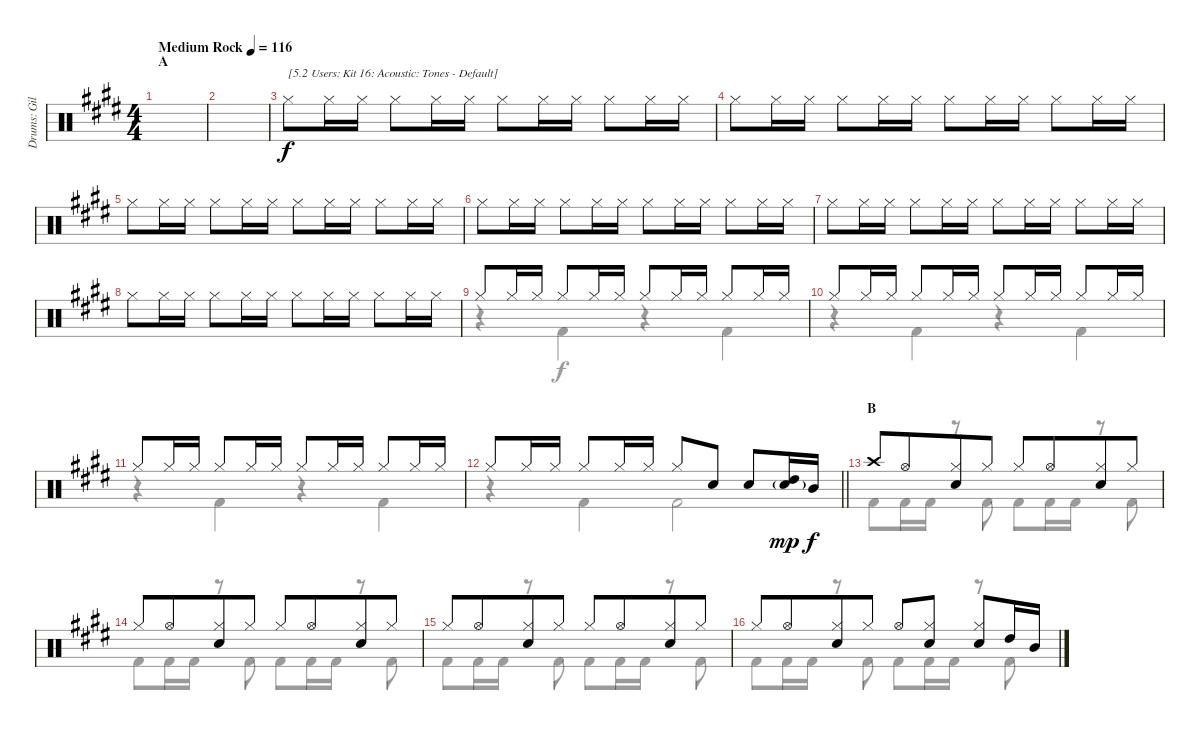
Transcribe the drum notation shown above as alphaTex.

\track ("Drums: Gil" "Drums: Gil") {instrument percussion}
\staff {score}
\articulation defaults
\voice
\ts (4 4)
\section ("" "A")
\tempo (116 "Medium Rock")
\clef neutral
\ks e
|
|
"Hi-Hat (closed)".8{txt "[5.2 Users: Kit 16: Acoustic: Tones - Default]"} "Hi-Hat (closed)".16 "Hi-Hat (closed)".16 "Hi-Hat (closed)".8 "Hi-Hat (closed)".16 "Hi-Hat (closed)".16 "Hi-Hat (closed)".8 "Hi-Hat (closed)".16 "Hi-Hat (closed)".16 "Hi-Hat (closed)".8 "Hi-Hat (closed)".16 "Hi-Hat (closed)".16 |
"Hi-Hat (closed)".8 "Hi-Hat (closed)".16 "Hi-Hat (closed)".16 "Hi-Hat (closed)".8 "Hi-Hat (closed)".16 "Hi-Hat (closed)".16 "Hi-Hat (closed)".8 "Hi-Hat (closed)".16 "Hi-Hat (closed)".16 "Hi-Hat (closed)".8 "Hi-Hat (closed)".16 "Hi-Hat (closed)".16 |
"Hi-Hat (closed)".8 "Hi-Hat (closed)".16 "Hi-Hat (closed)".16 "Hi-Hat (closed)".8 "Hi-Hat (closed)".16 "Hi-Hat (closed)".16 "Hi-Hat (closed)".8 "Hi-Hat (closed)".16 "Hi-Hat (closed)".16 "Hi-Hat (closed)".8 "Hi-Hat (closed)".16 "Hi-Hat (closed)".16 |
"Hi-Hat (closed)".8 "Hi-Hat (closed)".16 "Hi-Hat (closed)".16 "Hi-Hat (closed)".8 "Hi-Hat (closed)".16 "Hi-Hat (closed)".16 "Hi-Hat (closed)".8 "Hi-Hat (closed)".16 "Hi-Hat (closed)".16 "Hi-Hat (closed)".8 "Hi-Hat (closed)".16 "Hi-Hat (closed)".16 |
"Hi-Hat (closed)".8 "Hi-Hat (closed)".16 "Hi-Hat (closed)".16 "Hi-Hat (closed)".8 "Hi-Hat (closed)".16 "Hi-Hat (closed)".16 "Hi-Hat (closed)".8 "Hi-Hat (closed)".16 "Hi-Hat (closed)".16 "Hi-Hat (closed)".8 "Hi-Hat (closed)".16 "Hi-Hat (closed)".16 |
"Hi-Hat (closed)".8 "Hi-Hat (closed)".16 "Hi-Hat (closed)".16 "Hi-Hat (closed)".8 "Hi-Hat (closed)".16 "Hi-Hat (closed)".16 "Hi-Hat (closed)".8 "Hi-Hat (closed)".16 "Hi-Hat (closed)".16 "Hi-Hat (closed)".8 "Hi-Hat (closed)".16 "Hi-Hat (closed)".16 |
"Hi-Hat (closed)".8 "Hi-Hat (closed)".16 "Hi-Hat (closed)".16 "Hi-Hat (closed)".8 "Hi-Hat (closed)".16 "Hi-Hat (closed)".16 "Hi-Hat (closed)".8 "Hi-Hat (closed)".16 "Hi-Hat (closed)".16 "Hi-Hat (closed)".8 "Hi-Hat (closed)".16 "Hi-Hat (closed)".16 |
"Hi-Hat (closed)".8 "Hi-Hat (closed)".16 "Hi-Hat (closed)".16 "Hi-Hat (closed)".8 "Hi-Hat (closed)".16 "Hi-Hat (closed)".16 "Hi-Hat (closed)".8 "Hi-Hat (closed)".16 "Hi-Hat (closed)".16 "Hi-Hat (closed)".8 "Hi-Hat (closed)".16 "Hi-Hat (closed)".16 |
"Hi-Hat (closed)".8 "Hi-Hat (closed)".16 "Hi-Hat (closed)".16 "Hi-Hat (closed)".8 "Hi-Hat (closed)".16 "Hi-Hat (closed)".16 "Hi-Hat (closed)".8 "Hi-Hat (closed)".16 "Hi-Hat (closed)".16 "Hi-Hat (closed)".8 "Hi-Hat (closed)".16 "Hi-Hat (closed)".16 |
\barLineRight lightlight "Hi-Hat (closed)".8 "Hi-Hat (closed)".16 "Hi-Hat (closed)".16 "Hi-Hat (closed)".8 "Hi-Hat (closed)".16 "Hi-Hat (closed)".16 "Hi-Hat (closed)".8 "Snare (hit) 2".8 "Snare (hit) 2".8{beam merge}
("Electric Snare (hit)"{g} "High Tom (hit)").16{dy mp} "Mid Tom (hit)".16{dy f} |
\section ("" "B")
"Crash high (hit)".8 "Hi-Hat (open)".8{beam merge} ("Hi-Hat (closed)" "Snare (hit) 2").8 "Hi-Hat (closed)".8 "Hi-Hat (closed)".8 "Hi-Hat (open)".8{beam merge} ("Hi-Hat (closed)" "Snare (hit) 2").8 "Hi-Hat (closed)".8 |
"Hi-Hat (closed)".8 "Hi-Hat (open)".8{beam merge} ("Hi-Hat (closed)" "Snare (hit) 2").8 "Hi-Hat (closed)".8 "Hi-Hat (closed)".8 "Hi-Hat (open)".8{beam merge} ("Hi-Hat (closed)" "Snare (hit) 2").8 "Hi-Hat (closed)".8 |
"Hi-Hat (closed)".8 "Hi-Hat (open)".8{beam merge} ("Hi-Hat (closed)" "Snare (hit) 2").8 "Hi-Hat (closed)".8 "Hi-Hat (closed)".8 "Hi-Hat (open)".8{beam merge} ("Hi-Hat (closed)" "Snare (hit) 2").8 "Hi-Hat (closed)".8 |
"Hi-Hat (closed)".8 "Hi-Hat (open)".8{beam merge} ("Hi-Hat (closed)" "Snare (hit) 2").8 "Hi-Hat (closed)".8 "Hi-Hat (open)".8 ("Hi-Hat (closed)" "Snare (hit) 2").8 ("Hi-Hat (closed)" "Snare (hit) 2").8{beam merge} "High Tom (hit)".16 "Mid Tom (hit)".16
\voice
\clef neutral
\ottava regular
\simile none
\ks e
|
|
|
|
|
|
|
|
r.4 "Kick (hit) 2".4 r.4 "Kick (hit) 2".4 |
r.4 "Kick (hit) 2".4 r.4 "Kick (hit) 2".4 |
r.4 "Kick (hit) 2".4 r.4 "Kick (hit) 2".4 |
\barLineRight lightlight
r.4 "Kick (hit) 2".4 "Kick (hit) 2".2 |
"Kick (hit) 2".8 "Kick (hit) 2".16 "Kick (hit) 2".16 r.8 "Kick (hit) 2".8 "Kick (hit) 2".8 "Kick (hit) 2".16 "Kick (hit) 2".16 r.8 "Kick (hit) 2".8 |
"Kick (hit) 2".8 "Kick (hit) 2".16 "Kick (hit) 2".16 r.8 "Kick (hit) 2".8 "Kick (hit) 2".8 "Kick (hit) 2".16 "Kick (hit) 2".16 r.8 "Kick (hit) 2".8 |
"Kick (hit) 2".8 "Kick (hit) 2".16 "Kick (hit) 2".16 r.8 "Kick (hit) 2".8 "Kick (hit) 2".8 "Kick (hit) 2".16 "Kick (hit) 2".16 r.8 "Kick (hit) 2".8 |
"Kick (hit) 2".8 "Kick (hit) 2".16 "Kick (hit) 2".16 r.8 "Kick (hit) 2".8 "Kick (hit) 2".8 "Kick (hit) 2".16 "Kick (hit) 2".16 r.8 "Kick (hit) 2".8
